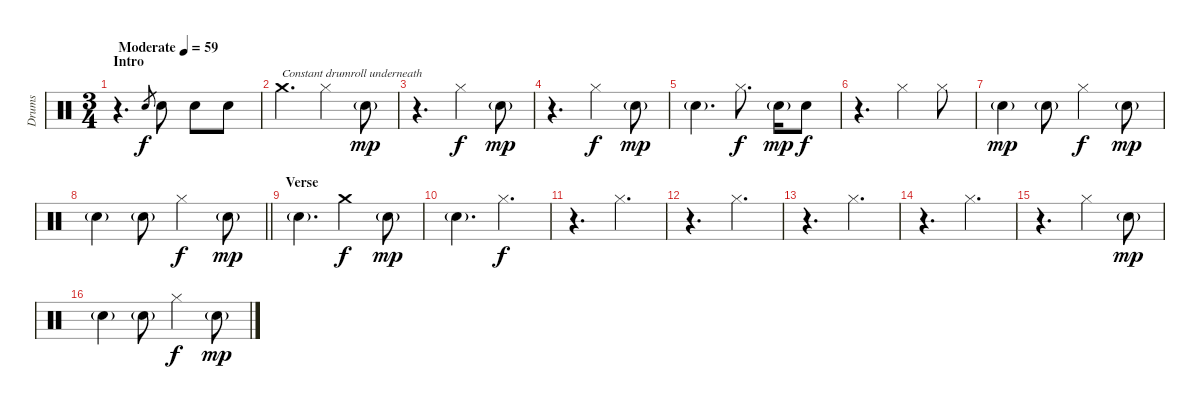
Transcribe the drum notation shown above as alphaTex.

\track ("Drums" "Drums") {instrument percussion}
\staff {score}
\articulation defaults
\ts (3 4)
\section ("" "Intro")
\tempo (59 "Moderate")
\clef neutral
\ks c
r.4{d dy f} "Snare (hit) 2".8{gr} "Snare (hit) 2".8 "Snare (hit) 2".8 "Snare (hit) 2".8 |
"Crash medium (hit)".4{d txt "Constant drumroll underneath"} "Hi-Hat (closed)".4 "Snare (hit) 2"{g}.8{dy mp} |
r.4{d} "Hi-Hat (closed)".4{dy f} "Snare (hit) 2"{g}.8{dy mp} |
r.4{d} "Hi-Hat (closed)".4{dy f} "Snare (hit) 2"{g}.8{dy mp} |
"Snare (hit) 2"{g}.4{d} "Hi-Hat (closed)".8{d dy f} "Snare (hit) 2"{g}.16{dy mp} "Snare (hit) 2".8{dy f} |
r.4{d} "Hi-Hat (closed)".4 "Hi-Hat (closed)".8 |
"Snare (hit) 2"{g}.4{dy mp} "Snare (hit) 2"{g}.8 "Hi-Hat (closed)".4{dy f} "Snare (hit) 2"{g}.8{dy mp} |
\barLineRight lightlight "Snare (hit) 2"{g}.4 "Snare (hit) 2"{g}.8 "Hi-Hat (closed)".4{dy f} "Snare (hit) 2"{g}.8{dy mp}
|
\section ("" "Verse")
"Snare (hit) 2"{g}.4{d} "Crash medium (hit)".4{dy f} "Snare (hit) 2"{g}.8{dy mp} |
"Snare (hit) 2"{g}.4{d} "Hi-Hat (closed)".4{d dy f} |
r.4{d} "Hi-Hat (closed)".4{d} |
r.4{d} "Hi-Hat (closed)".4{d} |
r.4{d} "Hi-Hat (closed)".4{d} |
r.4{d} "Hi-Hat (closed)".4{d} |
r.4{d} "Hi-Hat (closed)".4 "Snare (hit) 2"{g}.8{dy mp} |
"Snare (hit) 2"{g}.4 "Snare (hit) 2"{g}.8 "Hi-Hat (closed)".4{dy f} "Snare (hit) 2"{g}.8{dy mp}
